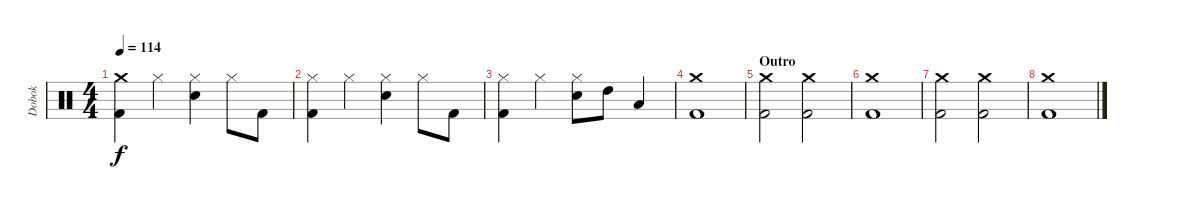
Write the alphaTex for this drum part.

\track ("Dobok" "Dobok") {instrument percussion}
\staff {score}
\articulation defaults
\ts (4 4)
\tempo 114
\clef neutral
\ks c
("Crash medium (hit)" "Kick (hit) 2").4{dy f} "Hi-Hat (closed)".4 ("Hi-Hat (closed)" "Snare (hit) 2").4 "Hi-Hat (closed)".8 "Kick (hit) 2".8 |
("Hi-Hat (closed)" "Kick (hit) 2").4 "Hi-Hat (closed)".4 ("Hi-Hat (closed)" "Snare (hit) 2").4 "Hi-Hat (closed)".8 "Kick (hit) 2".8 |
("Hi-Hat (closed)" "Kick (hit) 2").4 "Hi-Hat (closed)".4 ("Hi-Hat (closed)" "Snare (hit) 2").8 "High Tom (hit)".8 "Low Tom (hit)".4 |
("Crash medium (hit)" "Kick (hit) 2").1 |
\section ("" "Outro")
("Crash medium (hit)" "Kick (hit) 2").2 ("Crash medium (hit)" "Kick (hit) 2").2 |
("Crash medium (hit)" "Kick (hit) 2").1 |
("Crash medium (hit)" "Kick (hit) 2").2 ("Crash medium (hit)" "Kick (hit) 2").2 |
("Crash medium (hit)" "Kick (hit) 2").1
